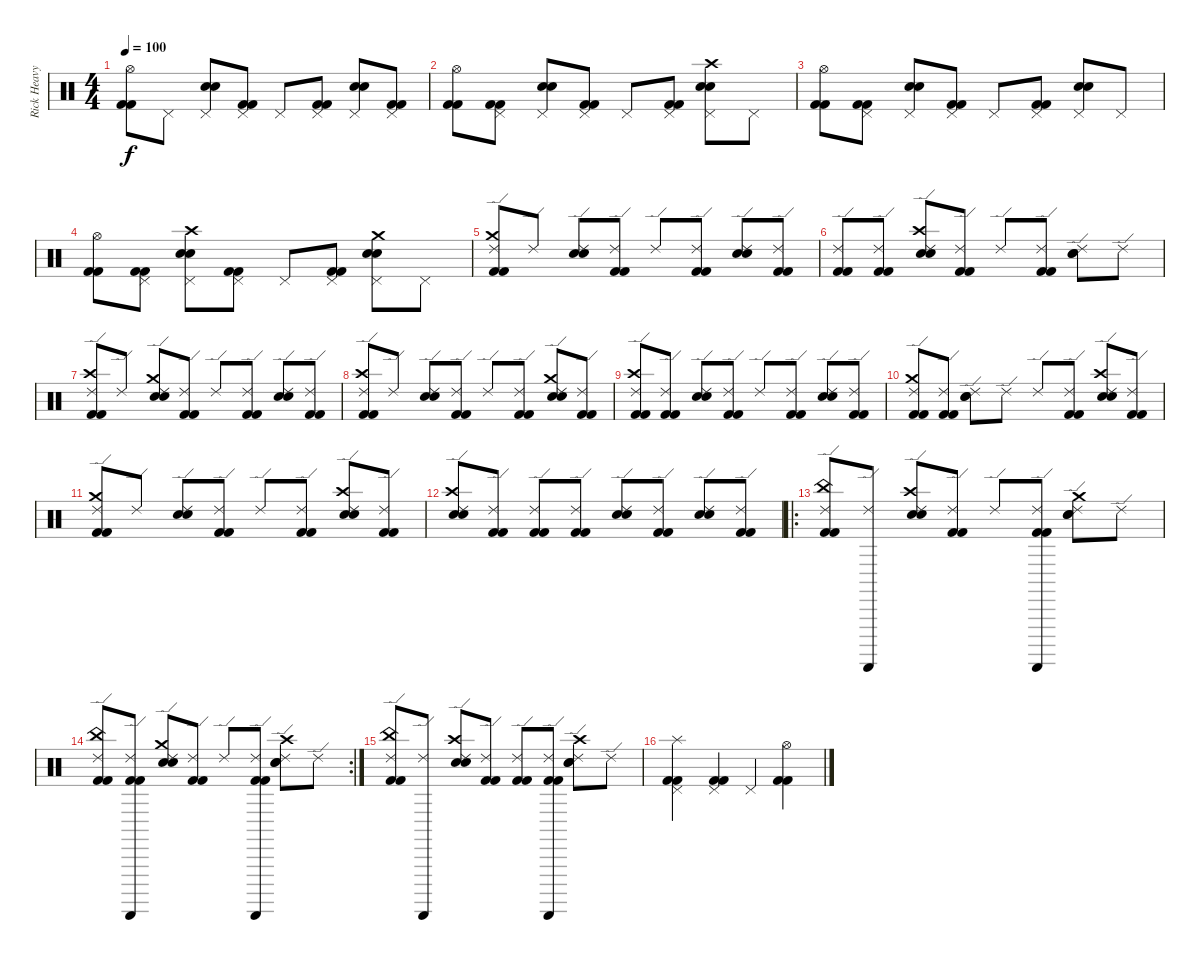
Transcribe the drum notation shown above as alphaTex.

\track ("Rick Heavy" "Rick Heavy") {instrument percussion}
\staff {score}
\articulation defaults
\ts (4 4)
\tempo 100
\clef neutral
\ks c
("Hi-Hat (open)" "Kick (hit) 2" "Kick (hit) 2").8{dy f} "Pedal Hi-Hat (hit)".8 ("Pedal Hi-Hat (hit)" "Electric Snare (hit)" "Snare (hit) 2").8 ("Pedal Hi-Hat (hit)" "Kick (hit) 2" "Kick (hit) 2").8 "Pedal Hi-Hat (hit)".8 ("Pedal Hi-Hat (hit)" "Kick (hit) 2" "Kick (hit) 2").8 ("Pedal Hi-Hat (hit)" "Electric Snare (hit)" "Snare (hit) 2").8 ("Pedal Hi-Hat (hit)" "Kick (hit) 2" "Kick (hit) 2").8 |
("Hi-Hat (open)" "Kick (hit) 2" "Kick (hit) 2").8 ("Pedal Hi-Hat (hit)" "Kick (hit) 2" "Kick (hit) 2").8 ("Pedal Hi-Hat (hit)" "Electric Snare (hit)" "Snare (hit) 2").8 ("Pedal Hi-Hat (hit)" "Kick (hit) 2" "Kick (hit) 2").8 "Pedal Hi-Hat (hit)".8 ("Pedal Hi-Hat (hit)" "Kick (hit) 2" "Kick (hit) 2").8 ("Pedal Hi-Hat (hit)" "Electric Snare (hit)" "Snare (hit) 2" "Crash high (hit)").8 "Pedal Hi-Hat (hit)".8 |
("Hi-Hat (open)" "Kick (hit) 2" "Kick (hit) 2").8 ("Pedal Hi-Hat (hit)" "Kick (hit) 2" "Kick (hit) 2").8 ("Pedal Hi-Hat (hit)" "Electric Snare (hit)" "Snare (hit) 2").8 ("Pedal Hi-Hat (hit)" "Kick (hit) 2" "Kick (hit) 2").8 "Pedal Hi-Hat (hit)".8 ("Pedal Hi-Hat (hit)" "Kick (hit) 2" "Kick (hit) 2").8 ("Pedal Hi-Hat (hit)" "Electric Snare (hit)" "Snare (hit) 2").8 "Pedal Hi-Hat (hit)".8 |
("Hi-Hat (open)" "Kick (hit) 2" "Kick (hit) 2").8 ("Pedal Hi-Hat (hit)" "Kick (hit) 2" "Kick (hit) 2").8 ("Pedal Hi-Hat (hit)" "Crash high (hit)" "Electric Snare (hit)" "Snare (hit) 2").8 ("Pedal Hi-Hat (hit)" "Kick (hit) 2" "Kick (hit) 2").8 "Pedal Hi-Hat (hit)".8 ("Pedal Hi-Hat (hit)" "Kick (hit) 2" "Kick (hit) 2").8 ("Pedal Hi-Hat (hit)" "Crash medium (hit)" "Electric Snare (hit)" "Snare (hit) 2").8 "Pedal Hi-Hat (hit)".8 |
("Crash medium (hit)" "Ride (edge) 2" "Kick (hit) 2" "Kick (hit) 2").8 "Ride (edge) 2".8 ("Ride (edge) 2" "Electric Snare (hit)" "Snare (hit) 2").8 ("Ride (edge) 2" "Kick (hit) 2" "Kick (hit) 2").8 "Ride (edge) 2".8 ("Ride (edge) 2" "Kick (hit) 2" "Kick (hit) 2").8 ("Ride (edge) 2" "Electric Snare (hit)" "Snare (hit) 2").8 ("Ride (edge) 2" "Kick (hit) 2" "Kick (hit) 2").8 |
("Ride (edge) 2" "Kick (hit) 2" "Kick (hit) 2").8 ("Ride (edge) 2" "Kick (hit) 2" "Kick (hit) 2").8 ("Crash high (hit)" "Ride (edge) 2" "Electric Snare (hit)" "Snare (hit) 2").8 ("Ride (edge) 2" "Kick (hit) 2" "Kick (hit) 2").8 "Ride (edge) 2".8 ("Ride (edge) 2" "Kick (hit) 2" "Kick (hit) 2").8 ("Ride (edge) 2" "Electric Snare (hit)" "Snare (hit) 2").8 "Ride (edge) 2".8 |
("Ride (edge) 2" "Crash high (hit)" "Kick (hit) 2" "Kick (hit) 2").8 "Ride (edge) 2".8 ("Crash medium (hit)" "Ride (edge) 2" "Electric Snare (hit)" "Snare (hit) 2").8 ("Ride (edge) 2" "Kick (hit) 2" "Kick (hit) 2").8 "Ride (edge) 2".8 ("Ride (edge) 2" "Kick (hit) 2" "Kick (hit) 2").8 ("Ride (edge) 2" "Electric Snare (hit)" "Snare (hit) 2").8 ("Ride (edge) 2" "Kick (hit) 2" "Kick (hit) 2").8 |
("Crash high (hit)" "Ride (edge) 2" "Kick (hit) 2" "Kick (hit) 2").8 "Ride (edge) 2".8 ("Ride (edge) 2" "Electric Snare (hit)" "Snare (hit) 2").8 ("Ride (edge) 2" "Kick (hit) 2" "Kick (hit) 2").8 "Ride (edge) 2".8 ("Ride (edge) 2" "Kick (hit) 2" "Kick (hit) 2").8 ("Crash medium (hit)" "Ride (edge) 2" "Electric Snare (hit)" "Snare (hit) 2").8 ("Ride (edge) 2" "Kick (hit) 2" "Kick (hit) 2").8 |
("Crash high (hit)" "Ride (edge) 2" "Kick (hit) 2" "Kick (hit) 2").8 ("Ride (edge) 2" "Kick (hit) 2" "Kick (hit) 2").8 ("Ride (edge) 2" "Snare (hit) 2" "Electric Snare (hit)").8 ("Ride (edge) 2" "Kick (hit) 2" "Kick (hit) 2").8 "Ride (edge) 2".8 ("Ride (edge) 2" "Kick (hit) 2" "Kick (hit) 2").8 ("Ride (edge) 2" "Snare (hit) 2" "Electric Snare (hit)").8 ("Ride (edge) 2" "Kick (hit) 2" "Kick (hit) 2").8 |
("Crash medium (hit)" "Ride (edge) 2" "Kick (hit) 2" "Kick (hit) 2").8 ("Ride (edge) 2" "Kick (hit) 2" "Kick (hit) 2").8 ("Ride (edge) 2" "Snare (hit) 2" "Electric Snare (hit)").8 "Ride (edge) 2".8 "Ride (edge) 2".8 ("Ride (edge) 2" "Kick (hit) 2" "Kick (hit) 2").8 ("Crash high (hit)" "Ride (edge) 2" "Snare (hit) 2" "Electric Snare (hit)").8 ("Ride (edge) 2" "Kick (hit) 2" "Kick (hit) 2").8 |
("Crash medium (hit)" "Ride (edge) 2" "Kick (hit) 2" "Kick (hit) 2").8 "Ride (edge) 2".8 ("Ride (edge) 2" "Snare (hit) 2" "Electric Snare (hit)").8 ("Ride (edge) 2" "Kick (hit) 2" "Kick (hit) 2").8 "Ride (edge) 2".8 ("Ride (edge) 2" "Kick (hit) 2" "Kick (hit) 2").8 ("Crash high (hit)" "Ride (edge) 2" "Snare (hit) 2" "Electric Snare (hit)").8 ("Ride (edge) 2" "Kick (hit) 2" "Kick (hit) 2").8 |
("Crash high (hit)" "Ride (edge) 2" "Snare (hit) 2" "Electric Snare (hit)").8 ("Ride (edge) 2" "Kick (hit) 2" "Kick (hit) 2").8 ("Ride (edge) 2" "Kick (hit) 2" "Kick (hit) 2").8 ("Ride (edge) 2" "Kick (hit) 2" "Kick (hit) 2").8 ("Ride (edge) 2" "Snare (hit) 2" "Electric Snare (hit)").8 ("Ride (edge) 2" "Kick (hit) 2" "Kick (hit) 2").8 ("Ride (edge) 2" "Snare (hit) 2" "Electric Snare (hit)").8 ("Ride (edge) 2" "Kick (hit) 2" "Kick (hit) 2").8 |
\ro
("Ride (edge) 2" "China (hit)" "Kick (hit) 2" "Kick (hit) 2").8 ("Ride (edge) 2" "Guiro (scrap-return)").8 ("Ride (edge) 2" "Crash high (hit)" "Electric Snare (hit)" "Snare (hit) 2").8 ("Ride (edge) 2" "Kick (hit) 2" "Kick (hit) 2").8 "Ride (edge) 2".8 ("Ride (edge) 2" "Guiro (scrap-return)" "Kick (hit) 2" "Kick (hit) 2").8 ("Ride (edge) 2" "Crash medium (hit)" "Electric Snare (hit)" "Snare (hit) 2").8 "Ride (edge) 2".8 |
\rc 2
("Ride (edge) 2" "China (hit)" "Kick (hit) 2" "Kick (hit) 2").8 ("Ride (edge) 2" "Guiro (scrap-return)" "Kick (hit) 2" "Kick (hit) 2").8 ("Ride (edge) 2" "Crash medium (hit)" "Electric Snare (hit)" "Snare (hit) 2").8 ("Ride (edge) 2" "Kick (hit) 2" "Kick (hit) 2").8 "Ride (edge) 2".8 ("Ride (edge) 2" "Guiro (scrap-return)" "Kick (hit) 2" "Kick (hit) 2").8 ("Ride (edge) 2" "Crash high (hit)" "Electric Snare (hit)" "Snare (hit) 2").8 "Ride (edge) 2".8 |
("Ride (edge) 2" "China (hit)" "Kick (hit) 2" "Kick (hit) 2").8 ("Ride (edge) 2" "Guiro (scrap-return)").8 ("Ride (edge) 2" "Crash high (hit)" "Electric Snare (hit)" "Snare (hit) 2").8 ("Ride (edge) 2" "Kick (hit) 2" "Kick (hit) 2").8 ("Ride (edge) 2" "Kick (hit) 2" "Kick (hit) 2").8 ("Ride (edge) 2" "Guiro (scrap-return)" "Kick (hit) 2" "Kick (hit) 2").8 ("Ride (edge) 2" "Crash high (hit)" "Electric Snare (hit)" "Snare (hit) 2").8 "Ride (edge) 2".8 |
("Pedal Hi-Hat (hit)" "Splash (hit)" "Kick (hit) 2" "Kick (hit) 2").4 ("Pedal Hi-Hat (hit)" "Kick (hit) 2" "Kick (hit) 2").4 "Pedal Hi-Hat (hit)".4 ("Hi-Hat (open)" "Kick (hit) 2" "Kick (hit) 2").4
